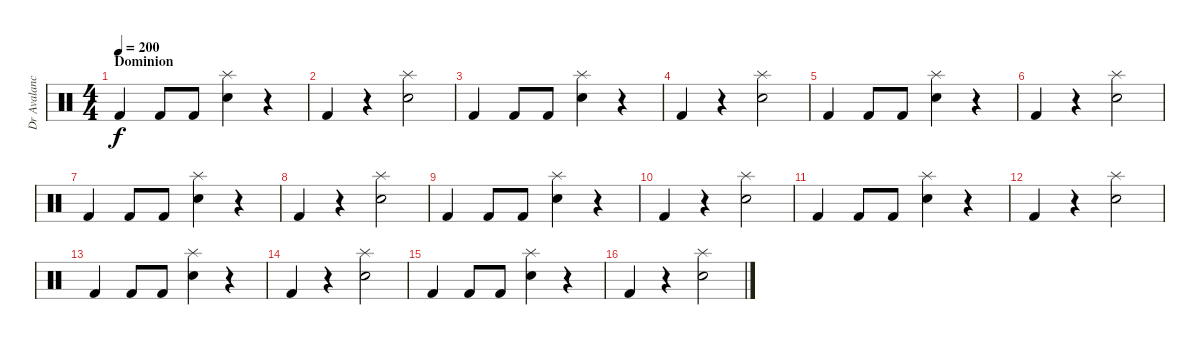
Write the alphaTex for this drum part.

\track ("Dr Avalanche" "Dr Avalanc") {instrument percussion}
\staff {score}
\articulation defaults
\ts (4 4)
\section ("" "Dominion")
\tempo 200
\clef neutral
\ks c "Kick (hit) 2".4{dy f} "Kick (hit) 2".8 "Kick (hit) 2".8
("Snare (hit) 2" "Splash (hit)").4 r.4 |
"Kick (hit) 2".4 r.4 ("Snare (hit) 2" "Splash (hit)").2 |
"Kick (hit) 2".4 "Kick (hit) 2".8 "Kick (hit) 2".8 ("Snare (hit) 2" "Splash (hit)").4 r.4 |
"Kick (hit) 2".4 r.4 ("Snare (hit) 2" "Splash (hit)").2 |
"Kick (hit) 2".4 "Kick (hit) 2".8 "Kick (hit) 2".8 ("Snare (hit) 2" "Splash (hit)").4 r.4 |
"Kick (hit) 2".4 r.4 ("Snare (hit) 2" "Splash (hit)").2 |
"Kick (hit) 2".4 "Kick (hit) 2".8 "Kick (hit) 2".8 ("Snare (hit) 2" "Splash (hit)").4 r.4 |
"Kick (hit) 2".4 r.4 ("Snare (hit) 2" "Splash (hit)").2 |
"Kick (hit) 2".4 "Kick (hit) 2".8 "Kick (hit) 2".8 ("Snare (hit) 2" "Splash (hit)").4 r.4 |
"Kick (hit) 2".4 r.4 ("Snare (hit) 2" "Splash (hit)").2 |
"Kick (hit) 2".4 "Kick (hit) 2".8 "Kick (hit) 2".8 ("Snare (hit) 2" "Splash (hit)").4 r.4 |
"Kick (hit) 2".4 r.4 ("Snare (hit) 2" "Splash (hit)").2 |
"Kick (hit) 2".4 "Kick (hit) 2".8 "Kick (hit) 2".8 ("Snare (hit) 2" "Splash (hit)").4 r.4 |
"Kick (hit) 2".4 r.4 ("Snare (hit) 2" "Splash (hit)").2 |
"Kick (hit) 2".4 "Kick (hit) 2".8 "Kick (hit) 2".8 ("Snare (hit) 2" "Splash (hit)").4 r.4 |
"Kick (hit) 2".4 r.4 ("Snare (hit) 2" "Splash (hit)").2
